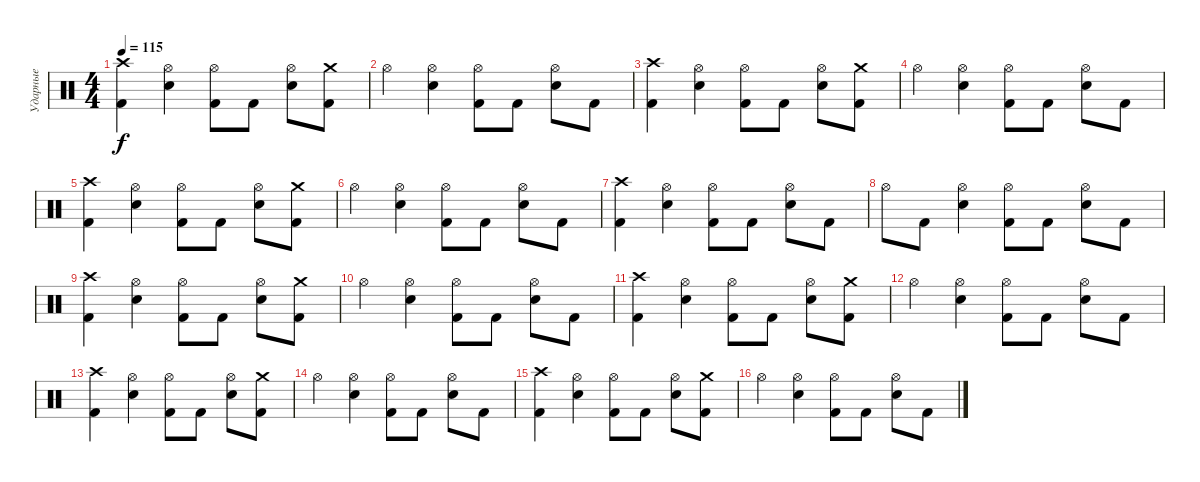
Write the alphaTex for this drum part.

\track ("Ударные" "Ударные") {instrument percussion}
\staff {score}
\articulation defaults
\ts (4 4)
\tempo 115
\clef neutral
\ks c
("Kick (hit) 2" "Crash high (hit)").4{dy f} ("Snare (hit) 2" "Hi-Hat (open)").4 ("Kick (hit) 2" "Hi-Hat (open)").8 "Kick (hit) 2".8 ("Snare (hit) 2" "Hi-Hat (open)").8 ("Kick (hit) 2" "Crash medium (hit)").8 |
"Hi-Hat (open)".4 ("Snare (hit) 2" "Hi-Hat (open)").4 ("Kick (hit) 2" "Hi-Hat (open)").8 "Kick (hit) 2".8 ("Snare (hit) 2" "Hi-Hat (open)").8 "Kick (hit) 2".8 |
("Kick (hit) 2" "Crash high (hit)").4 ("Snare (hit) 2" "Hi-Hat (open)").4 ("Kick (hit) 2" "Hi-Hat (open)").8 "Kick (hit) 2".8 ("Snare (hit) 2" "Hi-Hat (open)").8 ("Kick (hit) 2" "Crash medium (hit)").8 |
"Hi-Hat (open)".4 ("Snare (hit) 2" "Hi-Hat (open)").4 ("Kick (hit) 2" "Hi-Hat (open)").8 "Kick (hit) 2".8 ("Snare (hit) 2" "Hi-Hat (open)").8 "Kick (hit) 2".8 |
("Kick (hit) 2" "Crash high (hit)").4 ("Snare (hit) 2" "Hi-Hat (open)").4 ("Kick (hit) 2" "Hi-Hat (open)").8 "Kick (hit) 2".8 ("Snare (hit) 2" "Hi-Hat (open)").8 ("Kick (hit) 2" "Crash medium (hit)").8 |
"Hi-Hat (open)".4 ("Snare (hit) 2" "Hi-Hat (open)").4 ("Kick (hit) 2" "Hi-Hat (open)").8 "Kick (hit) 2".8 ("Snare (hit) 2" "Hi-Hat (open)").8 "Kick (hit) 2".8 |
("Kick (hit) 2" "Crash high (hit)").4 ("Snare (hit) 2" "Hi-Hat (open)").4 ("Kick (hit) 2" "Hi-Hat (open)").8 "Kick (hit) 2".8 ("Snare (hit) 2" "Hi-Hat (open)").8 "Kick (hit) 2".8 |
"Hi-Hat (open)".8 "Kick (hit) 2".8 ("Snare (hit) 2" "Hi-Hat (open)").4 ("Kick (hit) 2" "Hi-Hat (open)").8 "Kick (hit) 2".8 ("Snare (hit) 2" "Hi-Hat (open)").8 "Kick (hit) 2".8 |
("Kick (hit) 2" "Crash high (hit)").4 ("Snare (hit) 2" "Hi-Hat (open)").4 ("Kick (hit) 2" "Hi-Hat (open)").8 "Kick (hit) 2".8 ("Snare (hit) 2" "Hi-Hat (open)").8 ("Kick (hit) 2" "Crash medium (hit)").8 |
"Hi-Hat (open)".4 ("Snare (hit) 2" "Hi-Hat (open)").4 ("Kick (hit) 2" "Hi-Hat (open)").8 "Kick (hit) 2".8 ("Snare (hit) 2" "Hi-Hat (open)").8 "Kick (hit) 2".8 |
("Kick (hit) 2" "Crash high (hit)").4 ("Snare (hit) 2" "Hi-Hat (open)").4 ("Kick (hit) 2" "Hi-Hat (open)").8 "Kick (hit) 2".8 ("Snare (hit) 2" "Hi-Hat (open)").8 ("Kick (hit) 2" "Crash medium (hit)").8 |
"Hi-Hat (open)".4 ("Snare (hit) 2" "Hi-Hat (open)").4 ("Kick (hit) 2" "Hi-Hat (open)").8 "Kick (hit) 2".8 ("Snare (hit) 2" "Hi-Hat (open)").8 "Kick (hit) 2".8 |
("Kick (hit) 2" "Crash high (hit)").4 ("Snare (hit) 2" "Hi-Hat (open)").4 ("Kick (hit) 2" "Hi-Hat (open)").8 "Kick (hit) 2".8 ("Snare (hit) 2" "Hi-Hat (open)").8 ("Kick (hit) 2" "Crash medium (hit)").8 |
"Hi-Hat (open)".4 ("Snare (hit) 2" "Hi-Hat (open)").4 ("Kick (hit) 2" "Hi-Hat (open)").8 "Kick (hit) 2".8 ("Snare (hit) 2" "Hi-Hat (open)").8 "Kick (hit) 2".8 |
("Kick (hit) 2" "Crash high (hit)").4 ("Snare (hit) 2" "Hi-Hat (open)").4 ("Kick (hit) 2" "Hi-Hat (open)").8 "Kick (hit) 2".8 ("Snare (hit) 2" "Hi-Hat (open)").8 ("Kick (hit) 2" "Crash medium (hit)").8 |
"Hi-Hat (open)".4 ("Snare (hit) 2" "Hi-Hat (open)").4 ("Kick (hit) 2" "Hi-Hat (open)").8 "Kick (hit) 2".8 ("Snare (hit) 2" "Hi-Hat (open)").8 "Kick (hit) 2".8
